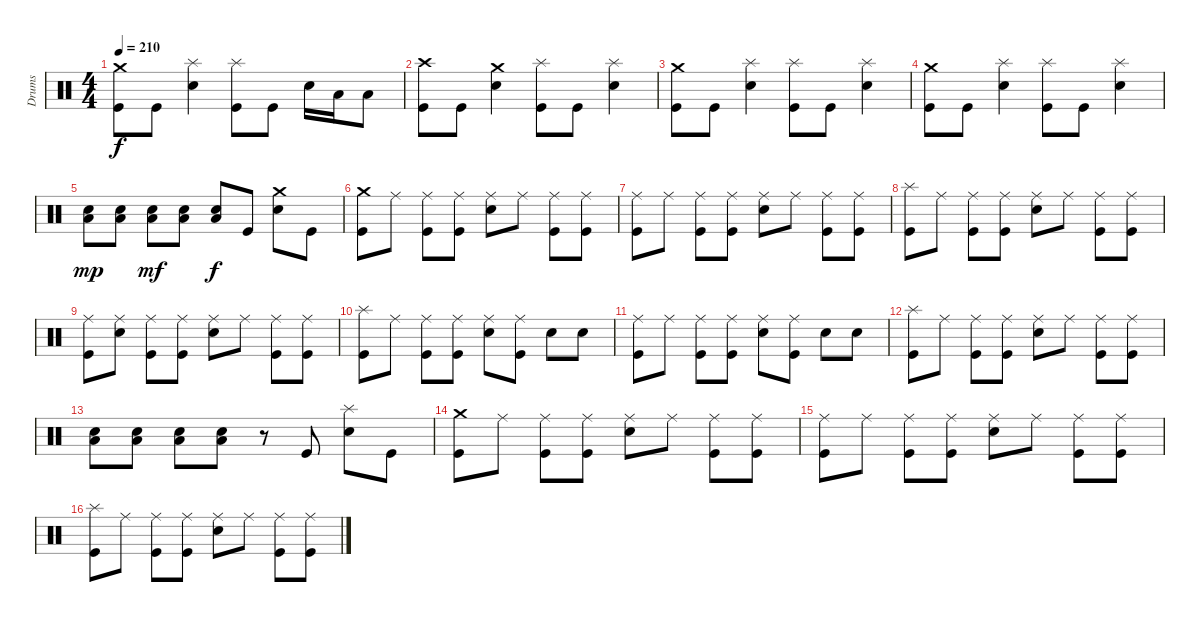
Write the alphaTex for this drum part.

\track ("Drums" "Drums") {instrument percussion}
\staff {score}
\articulation defaults
\ts (4 4)
\tempo 210
\clef neutral
\ks c
("Crash medium (hit)" "Kick (hit)").8{dy f} "Kick (hit)".8 ("Splash (hit)" "Electric Snare (hit)").4 ("Splash (hit)" "Kick (hit)").8 "Kick (hit)".8 "Electric Snare (hit)".16 "Low Tom (hit)".16 "Low Tom (hit)".8 |
("Crash high (hit)" "Kick (hit)").8 "Kick (hit)".8 ("Crash medium (hit)" "Electric Snare (hit)").4 ("Splash (hit)" "Kick (hit)").8 "Kick (hit)".8 ("Splash (hit)" "Electric Snare (hit)").4 |
("Crash medium (hit)" "Kick (hit)").8 "Kick (hit)".8 ("Splash (hit)" "Electric Snare (hit)").4 ("Splash (hit)" "Kick (hit)").8 "Kick (hit)".8 ("Splash (hit)" "Electric Snare (hit)").4 |
("Crash medium (hit)" "Kick (hit)").8 "Kick (hit)".8 ("Splash (hit)" "Electric Snare (hit)").4 ("Splash (hit)" "Kick (hit)").8 "Kick (hit)".8 ("Splash (hit)" "Electric Snare (hit)").4 |
("Low Floor Tom (hit)" "Electric Snare (hit)").8{dy mp} ("Low Floor Tom (hit)" "Electric Snare (hit)").8 ("Low Floor Tom (hit)" "Electric Snare (hit)").8{dy mf} ("Low Floor Tom (hit)" "Electric Snare (hit)").8 ("Low Floor Tom (hit)" "Electric Snare (hit)").8{dy f} "Kick (hit)".8 ("Crash medium (hit)" "Electric Snare (hit)").8 "Kick (hit)".8 |
("Crash medium (hit)" "Kick (hit)").8 "Ride (middle)".8 ("Ride (middle)" "Kick (hit)").8 ("Ride (middle)" "Kick (hit)").8 ("Ride (middle)" "Electric Snare (hit)").8 "Ride (middle)".8 ("Ride (middle)" "Kick (hit)").8 ("Ride (middle)" "Kick (hit)").8 |
("Ride (middle)" "Kick (hit)").8 "Ride (middle)".8 ("Ride (middle)" "Kick (hit)").8 ("Ride (middle)" "Kick (hit)").8 ("Ride (middle)" "Electric Snare (hit)").8 "Ride (middle)".8 ("Ride (middle)" "Kick (hit)").8 ("Ride (middle)" "Kick (hit)").8 |
("Splash (hit)" "Kick (hit)").8 "Ride (middle)".8 ("Ride (middle)" "Kick (hit)").8 ("Ride (middle)" "Kick (hit)").8 ("Ride (middle)" "Electric Snare (hit)").8 "Ride (middle)".8 ("Ride (middle)" "Kick (hit)").8 ("Ride (middle)" "Kick (hit)").8 |
("Ride (middle)" "Kick (hit)").8 ("Ride (middle)" "Electric Snare (hit)").8 ("Ride (middle)" "Kick (hit)").8 ("Ride (middle)" "Kick (hit)").8 ("Ride (middle)" "Electric Snare (hit)").8 "Ride (middle)".8 ("Ride (middle)" "Kick (hit)").8 ("Ride (middle)" "Kick (hit)").8 |
("Splash (hit)" "Kick (hit)").8 "Ride (middle)".8 ("Ride (middle)" "Kick (hit)").8 ("Ride (middle)" "Kick (hit)").8 ("Ride (middle)" "Electric Snare (hit)").8 ("Ride (middle)" "Kick (hit)").8 "Electric Snare (hit)".8 "Electric Snare (hit)".8 |
("Ride (middle)" "Kick (hit)").8 "Ride (middle)".8 ("Ride (middle)" "Kick (hit)").8 ("Ride (middle)" "Kick (hit)").8 ("Ride (middle)" "Electric Snare (hit)").8 ("Ride (middle)" "Kick (hit)").8 "Electric Snare (hit)".8 "Electric Snare (hit)".8 |
("Splash (hit)" "Kick (hit)").8 "Ride (middle)".8 ("Ride (middle)" "Kick (hit)").8 ("Ride (middle)" "Kick (hit)").8 ("Ride (middle)" "Electric Snare (hit)").8 "Ride (middle)".8 ("Ride (middle)" "Kick (hit)").8 ("Ride (middle)" "Kick (hit)").8 |
("Low Floor Tom (hit)" "Electric Snare (hit)").8 ("Low Floor Tom (hit)" "Electric Snare (hit)").8 ("Low Floor Tom (hit)" "Electric Snare (hit)").8 ("Low Floor Tom (hit)" "Electric Snare (hit)").8 r.8 "Kick (hit)".8 ("Splash (hit)" "Electric Snare (hit)").8 "Kick (hit)".8 |
("Crash medium (hit)" "Kick (hit)").8 "Ride (middle)".8 ("Ride (middle)" "Kick (hit)").8 ("Ride (middle)" "Kick (hit)").8 ("Ride (middle)" "Electric Snare (hit)").8 "Ride (middle)".8 ("Ride (middle)" "Kick (hit)").8 ("Ride (middle)" "Kick (hit)").8 |
("Ride (middle)" "Kick (hit)").8 "Ride (middle)".8 ("Ride (middle)" "Kick (hit)").8 ("Ride (middle)" "Kick (hit)").8 ("Ride (middle)" "Electric Snare (hit)").8 "Ride (middle)".8 ("Ride (middle)" "Kick (hit)").8 ("Ride (middle)" "Kick (hit)").8 |
("Splash (hit)" "Kick (hit)").8 "Ride (middle)".8 ("Ride (middle)" "Kick (hit)").8 ("Ride (middle)" "Kick (hit)").8 ("Ride (middle)" "Electric Snare (hit)").8 "Ride (middle)".8 ("Ride (middle)" "Kick (hit)").8 ("Ride (middle)" "Kick (hit)").8
